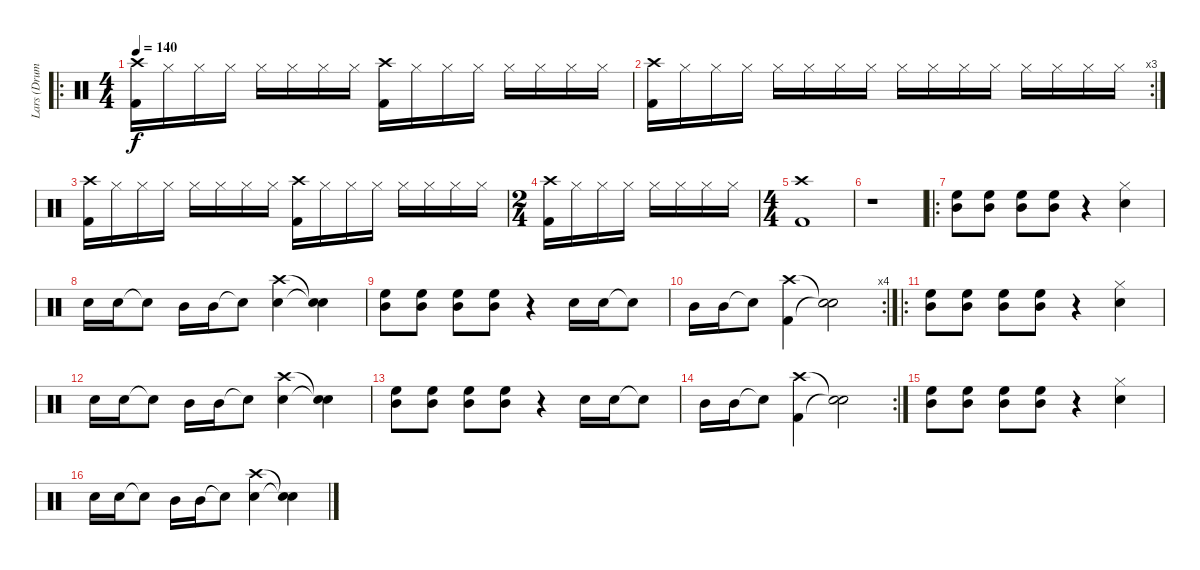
\track ("Lars (Drums)" "Lars (Drum") {instrument percussion}
\staff {score}
\articulation defaults
\ro
\ts (4 4)
\tempo 140
\clef neutral
\ks c
("Crash high (hit)" "Kick (hit) 2").16{dy f} "Hi-Hat (closed)".16 "Hi-Hat (closed)".16 "Hi-Hat (closed)".16 "Hi-Hat (closed)".16 "Hi-Hat (closed)".16 "Hi-Hat (closed)".16 "Hi-Hat (closed)".16 ("Crash high (hit)" "Kick (hit) 2").16 "Hi-Hat (closed)".16 "Hi-Hat (closed)".16 "Hi-Hat (closed)".16 "Hi-Hat (closed)".16 "Hi-Hat (closed)".16 "Hi-Hat (closed)".16 "Hi-Hat (closed)".16 |
\rc 3
("Crash high (hit)" "Kick (hit) 2").16 "Hi-Hat (closed)".16 "Hi-Hat (closed)".16 "Hi-Hat (closed)".16 "Hi-Hat (closed)".16 "Hi-Hat (closed)".16 "Hi-Hat (closed)".16 "Hi-Hat (closed)".16 "Hi-Hat (closed)".16 "Hi-Hat (closed)".16 "Hi-Hat (closed)".16 "Hi-Hat (closed)".16 "Hi-Hat (closed)".16 "Hi-Hat (closed)".16 "Hi-Hat (closed)".16 "Hi-Hat (closed)".16 |
("Crash high (hit)" "Kick (hit) 2").16 "Hi-Hat (closed)".16 "Hi-Hat (closed)".16 "Hi-Hat (closed)".16 "Hi-Hat (closed)".16 "Hi-Hat (closed)".16 "Hi-Hat (closed)".16 "Hi-Hat (closed)".16 ("Crash high (hit)" "Kick (hit) 2").16 "Hi-Hat (closed)".16 "Hi-Hat (closed)".16 "Hi-Hat (closed)".16 "Hi-Hat (closed)".16 "Hi-Hat (closed)".16 "Hi-Hat (closed)".16 "Hi-Hat (closed)".16 |
\ts (2 4)
("Crash high (hit)" "Kick (hit) 2").16 "Hi-Hat (closed)".16 "Hi-Hat (closed)".16 "Hi-Hat (closed)".16 "Hi-Hat (closed)".16 "Hi-Hat (closed)".16 "Hi-Hat (closed)".16 "Hi-Hat (closed)".16 |
\ts (4 4)
("Crash high (hit)" "Kick (hit) 2").1 |
r.1 |
\ro
("High Floor Tom (hit)" "Mid Tom (hit)").8 ("High Floor Tom (hit)" "Mid Tom (hit)").8 ("High Floor Tom (hit)" "Mid Tom (hit)").8 ("High Floor Tom (hit)" "Mid Tom (hit)").8 r.4 ("Hi-Hat (closed)" "Snare (hit) 2").4 |
"Snare (hit) 2".16 "Snare (hit) 2".16 "Snare (hit)"{t}.8 "Mid Tom (hit)".16 "Mid Tom (hit)".16 "Snare (hit)"{t}.8 ("Crash high (hit)" "Snare (hit) 2").4 ("Snare (hit)"{t} "Snare (hit)"{t}).4 |
("High Floor Tom (hit)" "Mid Tom (hit)").8 ("High Floor Tom (hit)" "Mid Tom (hit)").8 ("High Floor Tom (hit)" "Mid Tom (hit)").8 ("High Floor Tom (hit)" "Mid Tom (hit)").8 r.4 "Snare (hit) 2".16 "Snare (hit) 2".16 "Snare (hit)"{t}.8 |
\rc 4 "Mid Tom (hit)".16 "Mid Tom (hit)".16 "Snare (hit)"{t}.8
("Crash high (hit)" "Kick (hit) 2").4 ("Snare (hit)"{t} "Snare (hit)"{t}).2 |
\ro
("High Floor Tom (hit)" "Mid Tom (hit)").8 ("High Floor Tom (hit)" "Mid Tom (hit)").8 ("High Floor Tom (hit)" "Mid Tom (hit)").8 ("High Floor Tom (hit)" "Mid Tom (hit)").8 r.4 ("Hi-Hat (closed)" "Snare (hit) 2").4 |
"Snare (hit) 2".16 "Snare (hit) 2".16 "Snare (hit)"{t}.8 "Mid Tom (hit)".16 "Mid Tom (hit)".16 "Snare (hit)"{t}.8 ("Crash high (hit)" "Snare (hit) 2").4 ("Snare (hit)"{t} "Snare (hit)"{t}).4 |
("High Floor Tom (hit)" "Mid Tom (hit)").8 ("High Floor Tom (hit)" "Mid Tom (hit)").8 ("High Floor Tom (hit)" "Mid Tom (hit)").8 ("High Floor Tom (hit)" "Mid Tom (hit)").8 r.4 "Snare (hit) 2".16 "Snare (hit) 2".16 "Snare (hit)"{t}.8 |
\rc 2 "Mid Tom (hit)".16 "Mid Tom (hit)".16 "Snare (hit)"{t}.8
("Crash high (hit)" "Kick (hit) 2").4 ("Snare (hit)"{t} "Snare (hit)"{t}).2 |
("High Floor Tom (hit)" "Mid Tom (hit)").8 ("High Floor Tom (hit)" "Mid Tom (hit)").8 ("High Floor Tom (hit)" "Mid Tom (hit)").8 ("High Floor Tom (hit)" "Mid Tom (hit)").8 r.4 ("Hi-Hat (closed)" "Snare (hit) 2").4 |
"Snare (hit) 2".16 "Snare (hit) 2".16 "Snare (hit)"{t}.8 "Mid Tom (hit)".16 "Mid Tom (hit)".16 "Snare (hit)"{t}.8 ("Crash high (hit)" "Snare (hit) 2").4 ("Snare (hit)"{t} "Snare (hit)"{t}).4
